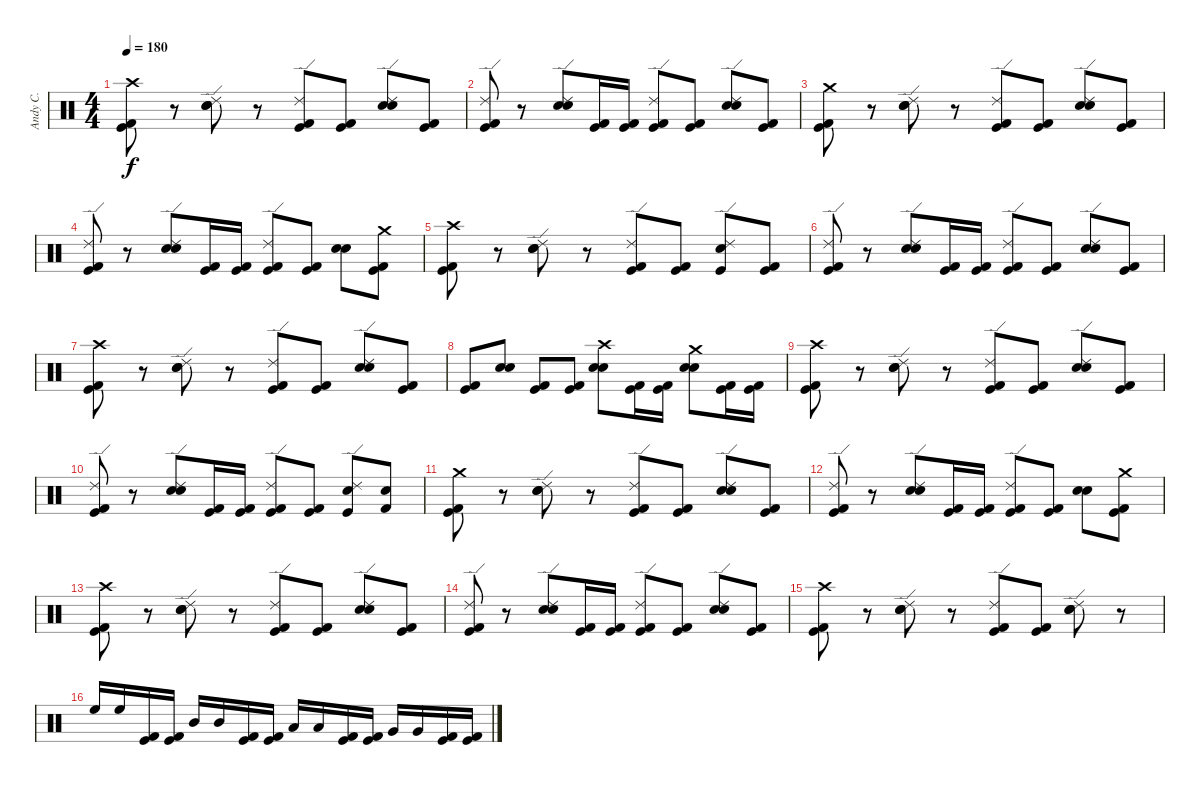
\track ("Andy C." "Andy C.") {instrument percussion}
\staff {score}
\articulation defaults
\ts (4 4)
\tempo 180
\clef neutral
\ks c
("Crash high (hit)" "Kick (hit)" "Kick (hit) 2").8{dy f} r.8 ("Ride (edge) 2" "Snare (hit) 2" "Electric Snare (hit)").8 r.8 ("Ride (edge) 2" "Kick (hit)" "Kick (hit) 2").8 ("Kick (hit)" "Kick (hit) 2").8 ("Ride (edge) 2" "Snare (hit) 2" "Electric Snare (hit)").8 ("Kick (hit)" "Kick (hit) 2").8 |
("Ride (edge) 2" "Kick (hit)" "Kick (hit) 2").8 r.8 ("Ride (edge) 2" "Snare (hit) 2" "Electric Snare (hit)").8 ("Kick (hit)" "Kick (hit) 2").16 ("Kick (hit)" "Kick (hit) 2").16 ("Ride (edge) 2" "Kick (hit)" "Kick (hit) 2").8 ("Kick (hit)" "Kick (hit) 2").8 ("Ride (edge) 2" "Snare (hit) 2" "Electric Snare (hit)").8 ("Kick (hit)" "Kick (hit) 2").8 |
("Crash medium (hit)" "Kick (hit)" "Kick (hit) 2").8 r.8 ("Ride (edge) 2" "Snare (hit) 2" "Electric Snare (hit)").8 r.8 ("Ride (edge) 2" "Kick (hit)" "Kick (hit) 2").8 ("Kick (hit)" "Kick (hit) 2").8 ("Ride (edge) 2" "Snare (hit) 2" "Electric Snare (hit)").8 ("Kick (hit)" "Kick (hit) 2").8 |
("Ride (edge) 2" "Kick (hit)" "Kick (hit) 2").8 r.8 ("Ride (edge) 2" "Snare (hit) 2" "Electric Snare (hit)").8 ("Kick (hit)" "Kick (hit) 2").16 ("Kick (hit)" "Kick (hit) 2").16 ("Ride (edge) 2" "Kick (hit)" "Kick (hit) 2").8 ("Kick (hit)" "Kick (hit) 2").8 ("Snare (hit) 2" "Electric Snare (hit)").8 ("Crash medium (hit)" "Kick (hit)" "Kick (hit) 2").8 |
("Crash high (hit)" "Kick (hit)" "Kick (hit) 2").8 r.8 ("Ride (edge) 2" "Snare (hit) 2" "Electric Snare (hit)").8 r.8 ("Ride (edge) 2" "Kick (hit)" "Kick (hit) 2").8 ("Kick (hit)" "Kick (hit) 2").8 ("Ride (edge) 2" "Kick (hit)" "Electric Snare (hit)").8 ("Kick (hit)" "Kick (hit) 2").8 |
("Ride (edge) 2" "Kick (hit)" "Kick (hit) 2").8 r.8 ("Ride (edge) 2" "Snare (hit) 2" "Electric Snare (hit)").8 ("Kick (hit)" "Kick (hit) 2").16 ("Kick (hit)" "Kick (hit) 2").16 ("Ride (edge) 2" "Kick (hit)" "Kick (hit) 2").8 ("Kick (hit)" "Kick (hit) 2").8 ("Ride (edge) 2" "Snare (hit) 2" "Electric Snare (hit)").8 ("Kick (hit)" "Kick (hit) 2").8 |
("Crash high (hit)" "Kick (hit)" "Kick (hit) 2").8 r.8 ("Ride (edge) 2" "Snare (hit) 2" "Electric Snare (hit)").8 r.8 ("Ride (edge) 2" "Kick (hit)" "Kick (hit) 2").8 ("Kick (hit)" "Kick (hit) 2").8 ("Ride (edge) 2" "Snare (hit) 2" "Electric Snare (hit)").8 ("Kick (hit) 2" "Kick (hit)").8 |
("Kick (hit)" "Kick (hit) 2").8 ("Snare (hit) 2" "Electric Snare (hit)").8 ("Kick (hit)" "Kick (hit) 2").8 ("Kick (hit)" "Kick (hit) 2").8 ("Crash high (hit)" "Snare (hit) 2" "Electric Snare (hit)").8 ("Kick (hit)" "Kick (hit) 2").16 ("Kick (hit)" "Kick (hit) 2").16 ("Crash medium (hit)" "Snare (hit) 2" "Electric Snare (hit)").8 ("Kick (hit)" "Kick (hit) 2").16 ("Kick (hit)" "Kick (hit) 2").16 |
("Crash high (hit)" "Kick (hit)" "Kick (hit) 2").8 r.8 ("Ride (edge) 2" "Snare (hit) 2" "Electric Snare (hit)").8 r.8 ("Ride (edge) 2" "Kick (hit)" "Kick (hit) 2").8 ("Kick (hit)" "Kick (hit) 2").8 ("Ride (edge) 2" "Snare (hit) 2" "Electric Snare (hit)").8 ("Kick (hit)" "Kick (hit) 2").8 |
("Ride (edge) 2" "Kick (hit)" "Kick (hit) 2").8 r.8 ("Ride (edge) 2" "Snare (hit) 2" "Electric Snare (hit)").8 ("Kick (hit)" "Kick (hit) 2").16 ("Kick (hit)" "Kick (hit) 2").16 ("Ride (edge) 2" "Kick (hit)" "Kick (hit) 2").8 ("Kick (hit)" "Kick (hit) 2").8 ("Ride (edge) 2" "Kick (hit)" "Electric Snare (hit)").8 ("Snare (hit) 2" "Kick (hit) 2").8 |
("Crash medium (hit)" "Kick (hit)" "Kick (hit) 2").8 r.8 ("Ride (edge) 2" "Snare (hit) 2" "Electric Snare (hit)").8 r.8 ("Ride (edge) 2" "Kick (hit)" "Kick (hit) 2").8 ("Kick (hit)" "Kick (hit) 2").8 ("Ride (edge) 2" "Snare (hit) 2" "Electric Snare (hit)").8 ("Kick (hit)" "Kick (hit) 2").8 |
("Ride (edge) 2" "Kick (hit)" "Kick (hit) 2").8 r.8 ("Ride (edge) 2" "Snare (hit) 2" "Electric Snare (hit)").8 ("Kick (hit)" "Kick (hit) 2").16 ("Kick (hit)" "Kick (hit) 2").16 ("Ride (edge) 2" "Kick (hit)" "Kick (hit) 2").8 ("Kick (hit)" "Kick (hit) 2").8 ("Snare (hit) 2" "Electric Snare (hit)").8 ("Crash medium (hit)" "Kick (hit)" "Kick (hit) 2").8 |
("Crash high (hit)" "Kick (hit)" "Kick (hit) 2").8 r.8 ("Ride (edge) 2" "Snare (hit) 2" "Electric Snare (hit)").8 r.8 ("Ride (edge) 2" "Kick (hit)" "Kick (hit) 2").8 ("Kick (hit)" "Kick (hit) 2").8 ("Ride (edge) 2" "Snare (hit) 2" "Electric Snare (hit)").8 ("Kick (hit)" "Kick (hit) 2").8 |
("Ride (edge) 2" "Kick (hit)" "Kick (hit) 2").8 r.8 ("Ride (edge) 2" "Snare (hit) 2" "Electric Snare (hit)").8 ("Kick (hit)" "Kick (hit) 2").16 ("Kick (hit)" "Kick (hit) 2").16 ("Ride (edge) 2" "Kick (hit)" "Kick (hit) 2").8 ("Kick (hit)" "Kick (hit) 2").8 ("Ride (edge) 2" "Snare (hit) 2" "Electric Snare (hit)").8 ("Kick (hit)" "Kick (hit) 2").8 |
("Crash high (hit)" "Kick (hit)" "Kick (hit) 2").8 r.8 ("Ride (edge) 2" "Snare (hit) 2" "Electric Snare (hit)").8 r.8 ("Ride (edge) 2" "Kick (hit)" "Kick (hit) 2").8 ("Kick (hit)" "Kick (hit) 2").8 ("Ride (edge) 2" "Snare (hit) 2" "Electric Snare (hit)").8 r.8 |
"High Floor Tom (hit)".16 "High Floor Tom (hit)".16 ("Kick (hit)" "Kick (hit) 2").16 ("Kick (hit)" "Kick (hit) 2").16 "Mid Tom (hit)".16 "Mid Tom (hit)".16 ("Kick (hit)" "Kick (hit) 2").16 ("Kick (hit)" "Kick (hit) 2").16 "Low Tom (hit)".16 "Low Tom (hit)".16 ("Kick (hit)" "Kick (hit) 2").16 ("Kick (hit)" "Kick (hit) 2").16 "Very Low Tom (hit)".16 "Very Low Tom (hit)".16 ("Kick (hit)" "Kick (hit) 2").16 ("Kick (hit)" "Kick (hit) 2").16
